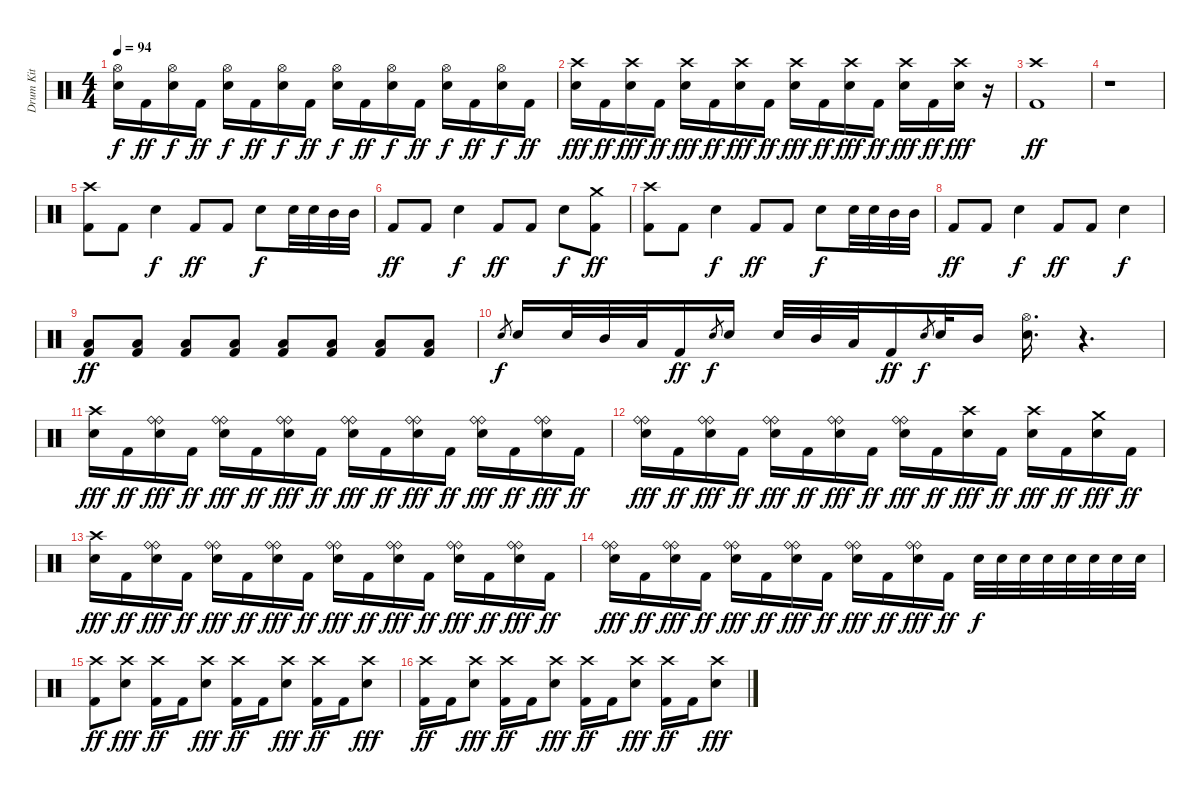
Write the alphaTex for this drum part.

\track ("Drum Kit" "Drum Kit") {instrument percussion}
\staff {score}
\articulation defaults
\ts (4 4)
\tempo 94
\clef neutral
\ks c
("Hi-Hat (open)" "Electric Snare (hit)").16{dy f} "Kick (hit) 2".16{dy ff} ("Hi-Hat (open)" "Electric Snare (hit)").16{dy f} "Kick (hit) 2".16{dy ff} ("Hi-Hat (open)" "Electric Snare (hit)").16{dy f} "Kick (hit) 2".16{dy ff} ("Hi-Hat (open)" "Electric Snare (hit)").16{dy f} "Kick (hit) 2".16{dy ff} ("Hi-Hat (open)" "Electric Snare (hit)").16{dy f} "Kick (hit) 2".16{dy ff} ("Hi-Hat (open)" "Electric Snare (hit)").16{dy f} "Kick (hit) 2".16{dy ff} ("Hi-Hat (open)" "Electric Snare (hit)").16{dy f} "Kick (hit) 2".16{dy ff} ("Hi-Hat (open)" "Electric Snare (hit)").16{dy f} "Kick (hit) 2".16{dy ff} |
("Crash high (hit)" "Electric Snare (hit)").16{dy fff} "Kick (hit) 2".16{dy ff} ("Crash high (hit)" "Electric Snare (hit)").16{dy fff} "Kick (hit) 2".16{dy ff} ("Crash high (hit)" "Electric Snare (hit)").16{dy fff} "Kick (hit) 2".16{dy ff} ("Crash high (hit)" "Electric Snare (hit)").16{dy fff} "Kick (hit) 2".16{dy ff} ("Crash high (hit)" "Electric Snare (hit)").16{dy fff} "Kick (hit) 2".16{dy ff} ("Crash high (hit)" "Electric Snare (hit)").16{dy fff} "Kick (hit) 2".16{dy ff} ("Crash high (hit)" "Electric Snare (hit)").16{dy fff} "Kick (hit) 2".16{dy ff} ("Crash high (hit)" "Electric Snare (hit)").16{dy fff} r.16 |
("Crash high (hit)" "Kick (hit) 2").1{dy ff} |
r.1 |
("Crash high (hit)" "Kick (hit) 2").8 "Kick (hit) 2".8 "Electric Snare (hit)".4{dy f} "Kick (hit) 2".8{dy ff} "Kick (hit) 2".8 "Electric Snare (hit)".8{dy f} "Electric Snare (hit)".32 "Electric Snare (hit)".32 "Mid Tom (hit)".32 "Mid Tom (hit)".32 |
"Kick (hit) 2".8{dy ff} "Kick (hit) 2".8 "Electric Snare (hit)".4{dy f} "Kick (hit) 2".8{dy ff} "Kick (hit) 2".8 "Electric Snare (hit)".8{dy f} ("Crash medium (hit)" "Kick (hit) 2").8{dy ff} |
("Crash high (hit)" "Kick (hit) 2").8 "Kick (hit) 2".8 "Electric Snare (hit)".4{dy f} "Kick (hit) 2".8{dy ff} "Kick (hit) 2".8 "Electric Snare (hit)".8{dy f} "Electric Snare (hit)".32 "Electric Snare (hit)".32 "Mid Tom (hit)".32 "Mid Tom (hit)".32 |
"Kick (hit) 2".8{dy ff} "Kick (hit) 2".8 "Electric Snare (hit)".4{dy f} "Kick (hit) 2".8{dy ff} "Kick (hit) 2".8 "Electric Snare (hit)".4{dy f} |
("Low Floor Tom (hit)" "Kick (hit) 2").8{dy ff} ("Low Floor Tom (hit)" "Kick (hit) 2").8 ("Low Floor Tom (hit)" "Kick (hit) 2").8 ("Low Floor Tom (hit)" "Kick (hit) 2").8 ("Low Floor Tom (hit)" "Kick (hit) 2").8 ("Low Floor Tom (hit)" "Kick (hit) 2").8 ("Low Floor Tom (hit)" "Kick (hit) 2").8 ("Low Floor Tom (hit)" "Kick (hit) 2").8 |
"Electric Snare (hit)".8{gr dy f} "Electric Snare (hit)".16 "Electric Snare (hit)".32 "Mid Tom (hit)".32 "Low Floor Tom (hit)".32 "Kick (hit) 2".16{dy ff} "Electric Snare (hit)".8{gr dy f} "Electric Snare (hit)".16 "Electric Snare (hit)".32 "Mid Tom (hit)".32 "Low Floor Tom (hit)".32 "Kick (hit) 2".16{dy ff} "Electric Snare (hit)".8{gr dy f} "Electric Snare (hit)".32 "Mid Tom (hit)".16 ("Hi-Hat (open)" "Electric Snare (hit)").16{d} r.4{d} |
("Crash high (hit)" "Electric Snare (hit)").16{dy fff} "Kick (hit) 2".16{dy ff} ("Ride (bell)" "Ride (bell)" "Electric Snare (hit)").16{dy fff} "Kick (hit) 2".16{dy ff} ("Ride (bell)" "Ride (bell)" "Electric Snare (hit)").16{dy fff} "Kick (hit) 2".16{dy ff} ("Ride (bell)" "Ride (bell)" "Electric Snare (hit)").16{dy fff} "Kick (hit) 2".16{dy ff} ("Ride (bell)" "Ride (bell)" "Electric Snare (hit)").16{dy fff} "Kick (hit) 2".16{dy ff} ("Ride (bell)" "Ride (bell)" "Electric Snare (hit)").16{dy fff} "Kick (hit) 2".16{dy ff} ("Ride (bell)" "Ride (bell)" "Electric Snare (hit)").16{dy fff} "Kick (hit) 2".16{dy ff} ("Ride (bell)" "Ride (bell)" "Electric Snare (hit)").16{dy fff} "Kick (hit) 2".16{dy ff} |
("Ride (bell)" "Ride (bell)" "Electric Snare (hit)").16{dy fff} "Kick (hit) 2".16{dy ff} ("Ride (bell)" "Ride (bell)" "Electric Snare (hit)").16{dy fff} "Kick (hit) 2".16{dy ff} ("Ride (bell)" "Ride (bell)" "Electric Snare (hit)").16{dy fff} "Kick (hit) 2".16{dy ff} ("Ride (bell)" "Ride (bell)" "Electric Snare (hit)").16{dy fff} "Kick (hit) 2".16{dy ff} ("Ride (bell)" "Ride (bell)" "Electric Snare (hit)").16{dy fff} "Kick (hit) 2".16{dy ff} ("Crash high (hit)" "Electric Snare (hit)").16{dy fff} "Kick (hit) 2".16{dy ff} ("Crash high (hit)" "Electric Snare (hit)").16{dy fff} "Kick (hit) 2".16{dy ff} ("Crash medium (hit)" "Electric Snare (hit)").16{dy fff} "Kick (hit) 2".16{dy ff} |
("Crash high (hit)" "Electric Snare (hit)").16{dy fff} "Kick (hit) 2".16{dy ff} ("Ride (bell)" "Ride (bell)" "Electric Snare (hit)").16{dy fff} "Kick (hit) 2".16{dy ff} ("Ride (bell)" "Ride (bell)" "Electric Snare (hit)").16{dy fff} "Kick (hit) 2".16{dy ff} ("Ride (bell)" "Ride (bell)" "Electric Snare (hit)").16{dy fff} "Kick (hit) 2".16{dy ff} ("Ride (bell)" "Ride (bell)" "Electric Snare (hit)").16{dy fff} "Kick (hit) 2".16{dy ff} ("Ride (bell)" "Ride (bell)" "Electric Snare (hit)").16{dy fff} "Kick (hit) 2".16{dy ff} ("Ride (bell)" "Ride (bell)" "Electric Snare (hit)").16{dy fff} "Kick (hit) 2".16{dy ff} ("Ride (bell)" "Ride (bell)" "Electric Snare (hit)").16{dy fff} "Kick (hit) 2".16{dy ff} |
("Ride (bell)" "Ride (bell)" "Electric Snare (hit)").16{dy fff} "Kick (hit) 2".16{dy ff} ("Ride (bell)" "Ride (bell)" "Electric Snare (hit)").16{dy fff} "Kick (hit) 2".16{dy ff} ("Ride (bell)" "Ride (bell)" "Electric Snare (hit)").16{dy fff} "Kick (hit) 2".16{dy ff} ("Ride (bell)" "Ride (bell)" "Electric Snare (hit)").16{dy fff} "Kick (hit) 2".16{dy ff} ("Ride (bell)" "Ride (bell)" "Electric Snare (hit)").16{dy fff} "Kick (hit) 2".16{dy ff} ("Ride (bell)" "Ride (bell)" "Electric Snare (hit)").16{dy fff} "Kick (hit) 2".16{dy ff} "Electric Snare (hit)".32{dy f} "Electric Snare (hit)".32 "Electric Snare (hit)".32 "Electric Snare (hit)".32 "Electric Snare (hit)".32 "Electric Snare (hit)".32 "Electric Snare (hit)".32 "Electric Snare (hit)".32 |
("Crash high (hit)" "Kick (hit) 2").8{dy ff} ("Crash high (hit)" "Electric Snare (hit)").8{dy fff} ("Crash high (hit)" "Kick (hit) 2").16{dy ff} "Kick (hit) 2".16 ("Crash high (hit)" "Electric Snare (hit)").8{dy fff} ("Crash high (hit)" "Kick (hit) 2").16{dy ff} "Kick (hit) 2".16 ("Crash high (hit)" "Electric Snare (hit)").8{dy fff} ("Crash high (hit)" "Kick (hit) 2").16{dy ff} "Kick (hit) 2".16 ("Crash high (hit)" "Electric Snare (hit)").8{dy fff} |
("Crash high (hit)" "Kick (hit) 2").16{dy ff} "Kick (hit) 2".16 ("Crash high (hit)" "Electric Snare (hit)").8{dy fff} ("Crash high (hit)" "Kick (hit) 2").16{dy ff} "Kick (hit) 2".16 ("Crash high (hit)" "Electric Snare (hit)").8{dy fff} ("Crash high (hit)" "Kick (hit) 2").16{dy ff} "Kick (hit) 2".16 ("Crash high (hit)" "Electric Snare (hit)").8{dy fff} ("Crash high (hit)" "Kick (hit) 2").16{dy ff} "Kick (hit) 2".16 ("Crash high (hit)" "Electric Snare (hit)").8{dy fff}
